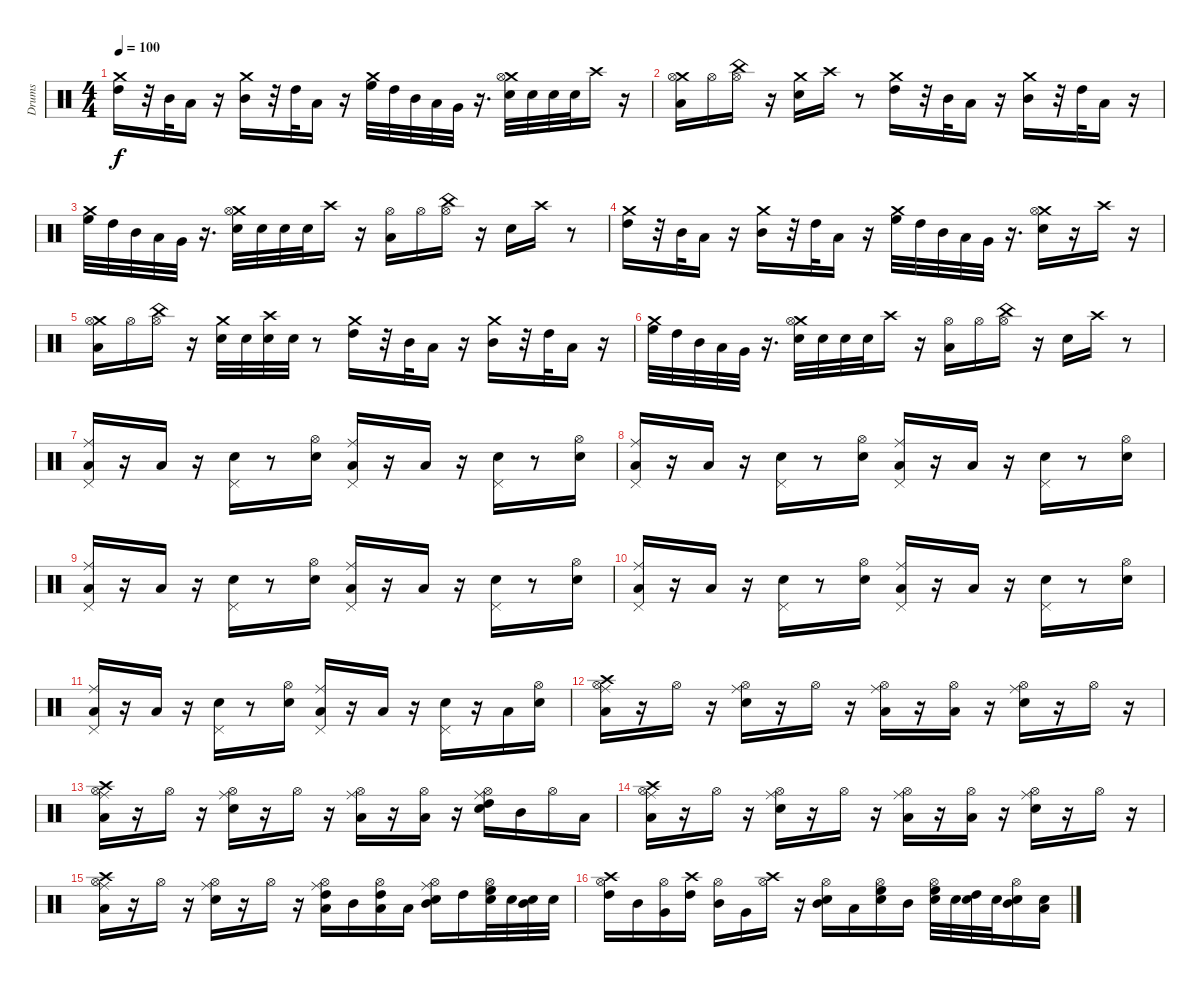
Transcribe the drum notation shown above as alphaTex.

\track ("Drums" "Drums") {instrument percussion}
\staff {score}
\articulation defaults
\ts (4 4)
\tempo 100
\clef neutral
\ks c
("High Tom (hit)" "Crash medium (hit)").16{dy f} r.32 "Mid Tom (hit)".32 "Low Tom (hit)".16 r.16 ("Crash medium (hit)" "Mid Tom (hit)").16 r.32 "High Tom (hit)".32 "Low Tom (hit)".16 r.16 ("Crash medium (hit)" "High Floor Tom (hit)").32 "High Tom (hit)".32 "Mid Tom (hit)".32 "Low Tom (hit)".32 "Very Low Tom (hit)".32 r.16{d} ("Crash medium (hit)" "Electric Snare (hit)" "Hi-Hat (open)").32 "Electric Snare (hit)".32 "Electric Snare (hit)".32 "Electric Snare (hit)".32 "Crash high (hit)".16 r.16 |
("Crash medium (hit)" "Low Tom (hit)" "Hi-Hat (open)").16 "Hi-Hat (open)".16 ("Hi-Hat (open)" "China (hit)").16 r.16 ("Crash medium (hit)" "Electric Snare (hit)").16 "Crash high (hit)".16 r.8 ("Crash medium (hit)" "High Tom (hit)").16 r.32 "Mid Tom (hit)".32 "Low Tom (hit)".16 r.16 ("Crash medium (hit)" "Mid Tom (hit)").16 r.32 "High Tom (hit)".32 "Low Tom (hit)".16 r.16 |
("Crash medium (hit)" "High Floor Tom (hit)").32 "High Tom (hit)".32 "Mid Tom (hit)".32 "Low Tom (hit)".32 "Very Low Tom (hit)".32 r.16{d} ("Crash medium (hit)" "Electric Snare (hit)" "Hi-Hat (open)").32 "Electric Snare (hit)".32 "Electric Snare (hit)".32 "Electric Snare (hit)".32 "Crash high (hit)".16 r.16 ("Low Tom (hit)" "Hi-Hat (open)").16 "Hi-Hat (open)".16 ("Hi-Hat (open)" "China (hit)").16 r.16 "Electric Snare (hit)".16 "Crash high (hit)".16 r.8 |
("Crash medium (hit)" "High Tom (hit)").16 r.32 "Mid Tom (hit)".32 "Low Tom (hit)".16 r.16 ("Crash medium (hit)" "Mid Tom (hit)").16 r.32 "High Tom (hit)".32 "Low Tom (hit)".16 r.16 ("Crash medium (hit)" "High Floor Tom (hit)").32 "High Tom (hit)".32 "Mid Tom (hit)".32 "Low Tom (hit)".32 "Very Low Tom (hit)".32 r.16{d} ("Crash medium (hit)" "Electric Snare (hit)" "Hi-Hat (open)").16 r.16 "Crash high (hit)".16 r.16 |
("Crash medium (hit)" "Low Tom (hit)" "Hi-Hat (open)").16 "Hi-Hat (open)".16 ("Hi-Hat (open)" "China (hit)").16 r.16 ("Crash medium (hit)" "Electric Snare (hit)").32 "Electric Snare (hit)".32 ("Electric Snare (hit)" "Crash high (hit)").32 "Electric Snare (hit)".32 r.8 ("Crash medium (hit)" "High Tom (hit)").16 r.32 "Mid Tom (hit)".32 "Low Tom (hit)".16 r.16 ("Crash medium (hit)" "Mid Tom (hit)").16 r.32 "High Tom (hit)".32 "Low Tom (hit)".16 r.16 |
("Crash medium (hit)" "High Floor Tom (hit)").32 "High Tom (hit)".32 "Mid Tom (hit)".32 "Low Tom (hit)".32 "Very Low Tom (hit)".32 r.16{d} ("Crash medium (hit)" "Electric Snare (hit)" "Hi-Hat (open)").32 "Electric Snare (hit)".32 "Electric Snare (hit)".32 "Electric Snare (hit)".32 "Crash high (hit)".16 r.16 ("Low Tom (hit)" "Hi-Hat (open)").16 "Hi-Hat (open)".16 ("Hi-Hat (open)" "China (hit)").16 r.16 "Electric Snare (hit)".16 "Crash high (hit)".16 r.8 |
("Pedal Hi-Hat (hit)" "Ride (middle)" "Low Floor Tom (hit)").16 r.16 "Low Floor Tom (hit)".16 r.16 ("Pedal Hi-Hat (hit)" "Electric Snare (hit)").16 r.8 ("Hi-Hat (open)" "Electric Snare (hit)").16 ("Pedal Hi-Hat (hit)" "Ride (middle)" "Low Floor Tom (hit)").16 r.16 "Low Floor Tom (hit)".16 r.16 ("Pedal Hi-Hat (hit)" "Electric Snare (hit)").16 r.8 ("Hi-Hat (open)" "Electric Snare (hit)").16 |
("Pedal Hi-Hat (hit)" "Ride (middle)" "Low Floor Tom (hit)").16 r.16 "Low Floor Tom (hit)".16 r.16 ("Pedal Hi-Hat (hit)" "Electric Snare (hit)").16 r.8 ("Hi-Hat (open)" "Electric Snare (hit)").16 ("Pedal Hi-Hat (hit)" "Ride (middle)" "Low Floor Tom (hit)").16 r.16 "Low Floor Tom (hit)".16 r.16 ("Pedal Hi-Hat (hit)" "Electric Snare (hit)").16 r.8 ("Hi-Hat (open)" "Electric Snare (hit)").16 |
("Pedal Hi-Hat (hit)" "Ride (middle)" "Low Floor Tom (hit)").16 r.16 "Low Floor Tom (hit)".16 r.16 ("Pedal Hi-Hat (hit)" "Electric Snare (hit)").16 r.8 ("Hi-Hat (open)" "Electric Snare (hit)").16 ("Pedal Hi-Hat (hit)" "Ride (middle)" "Low Floor Tom (hit)").16 r.16 "Low Floor Tom (hit)".16 r.16 ("Pedal Hi-Hat (hit)" "Electric Snare (hit)").16 r.8 ("Hi-Hat (open)" "Electric Snare (hit)").16 |
("Pedal Hi-Hat (hit)" "Ride (middle)" "Low Floor Tom (hit)").16 r.16 "Low Floor Tom (hit)".16 r.16 ("Pedal Hi-Hat (hit)" "Electric Snare (hit)").16 r.8 ("Hi-Hat (open)" "Electric Snare (hit)").16 ("Pedal Hi-Hat (hit)" "Ride (middle)" "Low Floor Tom (hit)").16 r.16 "Low Floor Tom (hit)".16 r.16 ("Pedal Hi-Hat (hit)" "Electric Snare (hit)").16 r.8 ("Hi-Hat (open)" "Electric Snare (hit)").16 |
("Pedal Hi-Hat (hit)" "Ride (middle)" "Low Floor Tom (hit)").16 r.16 "Low Floor Tom (hit)".16 r.16 ("Pedal Hi-Hat (hit)" "Electric Snare (hit)").16 r.8 ("Hi-Hat (open)" "Electric Snare (hit)").16 ("Pedal Hi-Hat (hit)" "Ride (middle)" "Low Floor Tom (hit)").16 r.16 "Low Floor Tom (hit)".16 r.16 ("Pedal Hi-Hat (hit)" "Electric Snare (hit)").16 r.16 "Low Floor Tom (hit)".16 ("Hi-Hat (open)" "Electric Snare (hit)").16 |
("Low Floor Tom (hit)" "Crash high (hit)" "Hi-Hat (open)" "Ride (middle)").16 r.16 "Hi-Hat (open)".16 r.16 ("Electric Snare (hit)" "Hi-Hat (open)" "Ride (middle)").16 r.16 "Hi-Hat (open)".16 r.16 ("Low Floor Tom (hit)" "Hi-Hat (open)" "Ride (middle)").16 r.16 ("Low Floor Tom (hit)" "Hi-Hat (open)").16 r.16 ("Hi-Hat (open)" "Ride (middle)" "Electric Snare (hit)").16 r.16 "Hi-Hat (open)".16 r.16 |
("Low Floor Tom (hit)" "Crash high (hit)" "Hi-Hat (open)" "Ride (middle)").16 r.16 "Hi-Hat (open)".16 r.16 ("Electric Snare (hit)" "Hi-Hat (open)" "Ride (middle)").16 r.16 "Hi-Hat (open)".16 r.16 ("Low Floor Tom (hit)" "Hi-Hat (open)" "Ride (middle)").16 r.16 ("Low Floor Tom (hit)" "Hi-Hat (open)").16 r.16 ("High Tom (hit)" "Hi-Hat (open)" "Ride (middle)" "Electric Snare (hit)").16 "Mid Tom (hit)".16 "Hi-Hat (open)".16 "Low Tom (hit)".16 |
("Low Floor Tom (hit)" "Crash high (hit)" "Hi-Hat (open)" "Ride (middle)").16 r.16 "Hi-Hat (open)".16 r.16 ("Electric Snare (hit)" "Hi-Hat (open)" "Ride (middle)").16 r.16 "Hi-Hat (open)".16 r.16 ("Low Floor Tom (hit)" "Hi-Hat (open)" "Ride (middle)").16 r.16 ("Low Floor Tom (hit)" "Hi-Hat (open)").16 r.16 ("Hi-Hat (open)" "Ride (middle)" "Electric Snare (hit)").16 r.16 "Hi-Hat (open)".16 r.16 |
("Low Floor Tom (hit)" "Crash high (hit)" "Hi-Hat (open)" "Ride (middle)").16 r.16 "Hi-Hat (open)".16 r.16 ("Electric Snare (hit)" "Hi-Hat (open)" "Ride (middle)").16 r.16 "Hi-Hat (open)".16 r.16 ("High Tom (hit)" "Low Floor Tom (hit)" "Hi-Hat (open)" "Ride (middle)").16 "Mid Tom (hit)".16 ("High Tom (hit)" "Low Floor Tom (hit)" "Hi-Hat (open)").16 "Low Tom (hit)".16 ("Mid Tom (hit)" "Hi-Hat (open)" "Ride (middle)" "Electric Snare (hit)").16 "High Tom (hit)".16 ("Electric Snare (hit)" "High Floor Tom (hit)" "Hi-Hat (open)").32 "Electric Snare (hit)".32 ("Electric Snare (hit)" "Mid Tom (hit)").32 "Electric Snare (hit)".32 |
("Hi-Hat (open)" "Crash high (hit)" "High Tom (hit)").16 "Mid Tom (hit)".16 ("Hi-Hat (open)" "Very Low Tom (hit)").16 ("Crash high (hit)" "High Tom (hit)").16 ("Hi-Hat (open)" "Mid Tom (hit)").16 "Very Low Tom (hit)".16 ("Hi-Hat (open)" "Crash high (hit)").16 r.16 ("Hi-Hat (open)" "Mid Tom (hit)" "Electric Snare (hit)").16 "Low Tom (hit)".16 ("Hi-Hat (open)" "High Floor Tom (hit)" "Electric Snare (hit)").16 "Mid Tom (hit)".16 ("Hi-Hat (open)" "High Floor Tom (hit)" "Electric Snare (hit)").32 "Electric Snare (hit)".32 ("High Tom (hit)" "Electric Snare (hit)").32 "Electric Snare (hit)".32 ("Hi-Hat (open)" "Mid Tom (hit)" "Electric Snare (hit)").16 ("Low Tom (hit)" "Electric Snare (hit)").16
